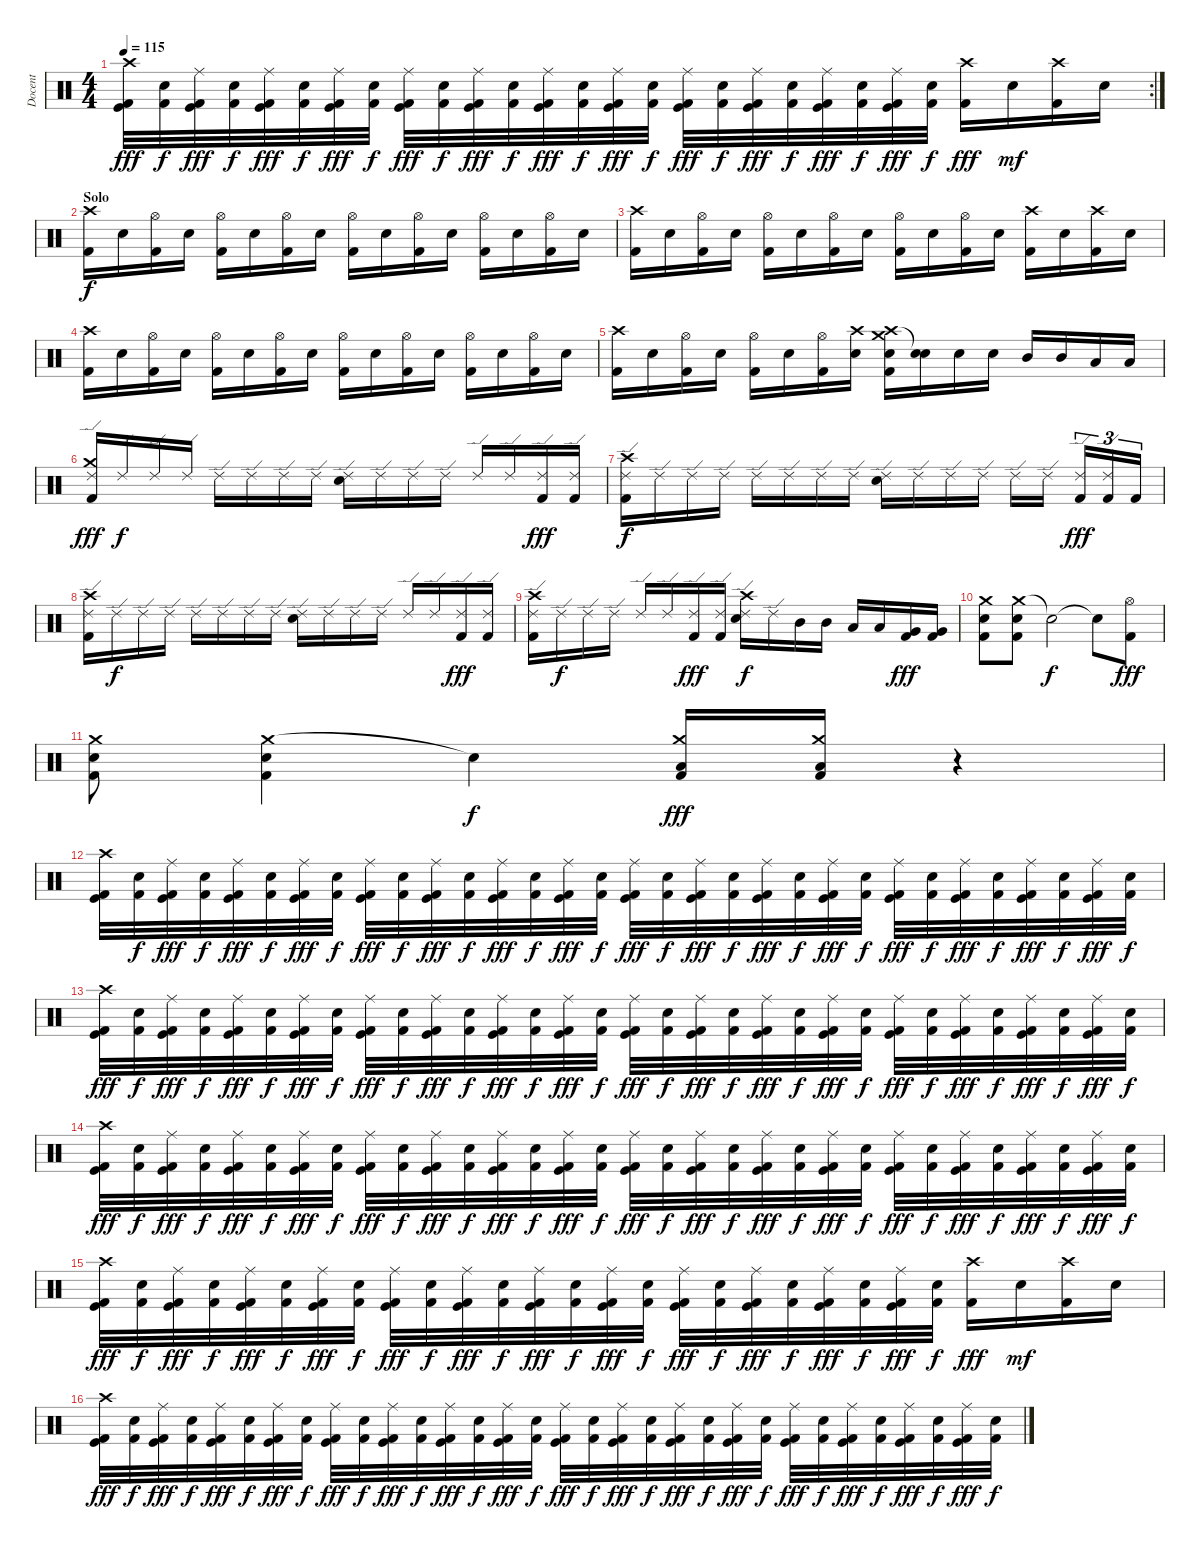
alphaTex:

\track ("Docent" "Docent") {instrument percussion}
\staff {score}
\articulation defaults
\rc 2
\ts (4 4)
\tempo 115
\clef neutral
\ks c
("Crash high (hit)" "Kick (hit)" "Kick (hit) 2").32{dy fff} ("Electric Snare (hit)" "Kick (hit) 2").32{dy f} ("Ride (middle)" "Kick (hit)" "Kick (hit) 2").32{dy fff} ("Electric Snare (hit)" "Kick (hit) 2").32{dy f} ("Ride (middle)" "Kick (hit)" "Kick (hit) 2").32{dy fff} ("Electric Snare (hit)" "Kick (hit) 2").32{dy f} ("Ride (middle)" "Kick (hit)" "Kick (hit) 2").32{dy fff} ("Electric Snare (hit)" "Kick (hit) 2").32{dy f} ("Ride (middle)" "Kick (hit)" "Kick (hit) 2").32{dy fff} ("Electric Snare (hit)" "Kick (hit) 2").32{dy f} ("Ride (middle)" "Kick (hit)" "Kick (hit) 2").32{dy fff} ("Electric Snare (hit)" "Kick (hit) 2").32{dy f} ("Ride (middle)" "Kick (hit)" "Kick (hit) 2").32{dy fff} ("Electric Snare (hit)" "Kick (hit) 2").32{dy f} ("Ride (middle)" "Kick (hit)" "Kick (hit) 2").32{dy fff} ("Electric Snare (hit)" "Kick (hit) 2").32{dy f} ("Ride (middle)" "Kick (hit)" "Kick (hit) 2").32{dy fff} ("Electric Snare (hit)" "Kick (hit) 2").32{dy f} ("Ride (middle)" "Kick (hit)" "Kick (hit) 2").32{dy fff} ("Electric Snare (hit)" "Kick (hit) 2").32{dy f} ("Ride (middle)" "Kick (hit)" "Kick (hit) 2").32{dy fff} ("Electric Snare (hit)" "Kick (hit) 2").32{dy f} ("Ride (middle)" "Kick (hit)" "Kick (hit) 2").32{dy fff} ("Electric Snare (hit)" "Kick (hit) 2").32{dy f} ("Crash high (hit)" "Kick (hit) 2").16{dy fff} "Electric Snare (hit)".16{dy mf} ("Crash high (hit)" "Kick (hit) 2").16 "Electric Snare (hit)".16 |
\section ("" "Solo")
("Crash high (hit)" "Kick (hit) 2").16{dy f} "Electric Snare (hit)".16 ("Hi-Hat (open)" "Kick (hit) 2").16 "Electric Snare (hit)".16 ("Hi-Hat (open)" "Kick (hit) 2").16 "Electric Snare (hit)".16 ("Hi-Hat (open)" "Kick (hit) 2").16 "Electric Snare (hit)".16 ("Hi-Hat (open)" "Kick (hit) 2").16 "Electric Snare (hit)".16 ("Hi-Hat (open)" "Kick (hit) 2").16 "Electric Snare (hit)".16 ("Hi-Hat (open)" "Kick (hit) 2").16 "Electric Snare (hit)".16 ("Hi-Hat (open)" "Kick (hit) 2").16 "Electric Snare (hit)".16 |
("Crash high (hit)" "Kick (hit) 2").16 "Electric Snare (hit)".16 ("Hi-Hat (open)" "Kick (hit) 2").16 "Electric Snare (hit)".16 ("Hi-Hat (open)" "Kick (hit) 2").16 "Electric Snare (hit)".16 ("Hi-Hat (open)" "Kick (hit) 2").16 "Electric Snare (hit)".16 ("Hi-Hat (open)" "Kick (hit) 2").16 "Electric Snare (hit)".16 ("Hi-Hat (open)" "Kick (hit) 2").16 "Electric Snare (hit)".16 ("Crash high (hit)" "Kick (hit) 2").16 "Electric Snare (hit)".16 ("Crash high (hit)" "Kick (hit) 2").16 "Electric Snare (hit)".16 |
("Crash high (hit)" "Kick (hit) 2").16 "Electric Snare (hit)".16 ("Hi-Hat (open)" "Kick (hit) 2").16 "Electric Snare (hit)".16 ("Hi-Hat (open)" "Kick (hit) 2").16 "Electric Snare (hit)".16 ("Hi-Hat (open)" "Kick (hit) 2").16 "Electric Snare (hit)".16 ("Hi-Hat (open)" "Kick (hit) 2").16 "Electric Snare (hit)".16 ("Hi-Hat (open)" "Kick (hit) 2").16 "Electric Snare (hit)".16 ("Hi-Hat (open)" "Kick (hit) 2").16 "Electric Snare (hit)".16 ("Hi-Hat (open)" "Kick (hit) 2").16 "Electric Snare (hit)".16 |
("Crash high (hit)" "Kick (hit) 2").16 "Electric Snare (hit)".16 ("Hi-Hat (open)" "Kick (hit) 2").16 "Electric Snare (hit)".16 ("Hi-Hat (open)" "Kick (hit) 2").16 "Electric Snare (hit)".16 ("Hi-Hat (open)" "Kick (hit) 2").16 ("Crash high (hit)" "Electric Snare (hit)").16 ("Crash high (hit)" "Crash medium (hit)" "Electric Snare (hit)" "Kick (hit) 2").16 ("Snare (hit)"{t} "Electric Snare (hit)").16 "Electric Snare (hit)".16 "Electric Snare (hit)".16 "Mid Tom (hit)".16 "Mid Tom (hit)".16 "Low Tom (hit)".16 "Low Tom (hit)".16 |
("Crash medium (hit)" "Kick (hit) 2" "Ride (edge) 2").16{dy fff} "Ride (edge) 2".16{dy f} "Ride (edge) 2".16 "Ride (edge) 2".16 "Ride (edge) 2".16 "Ride (edge) 2".16 "Ride (edge) 2".16 "Ride (edge) 2".16 ("Electric Snare (hit)" "Ride (edge) 2").16 "Ride (edge) 2".16 "Ride (edge) 2".16 "Ride (edge) 2".16 "Ride (edge) 2".16 "Ride (edge) 2".16 ("Kick (hit) 2" "Ride (edge) 2").16{dy fff} ("Kick (hit) 2" "Ride (edge) 2").16 |
("Crash high (hit)" "Kick (hit) 2" "Ride (edge) 2").16{dy f} "Ride (edge) 2".16 "Ride (edge) 2".16 "Ride (edge) 2".16 "Ride (edge) 2".16 "Ride (edge) 2".16 "Ride (edge) 2".16 "Ride (edge) 2".16 ("Electric Snare (hit)" "Ride (edge) 2").16 "Ride (edge) 2".16 "Ride (edge) 2".16 "Ride (edge) 2".16 "Ride (edge) 2".16 "Ride (edge) 2".16 ("Kick (hit) 2" "Ride (edge) 2").16{tu (3 2) dy fff} ("Kick (hit) 2" "Ride (edge) 2").16{tu (3 2)} "Kick (hit) 2".16{tu (3 2)} |
("Crash high (hit)" "Kick (hit) 2" "Ride (edge) 2").16 "Ride (edge) 2".16{dy f} "Ride (edge) 2".16 "Ride (edge) 2".16 "Ride (edge) 2".16 "Ride (edge) 2".16 "Ride (edge) 2".16 "Ride (edge) 2".16 ("Electric Snare (hit)" "Ride (edge) 2").16 "Ride (edge) 2".16 "Ride (edge) 2".16 "Ride (edge) 2".16 "Ride (edge) 2".16 "Ride (edge) 2".16 ("Kick (hit) 2" "Ride (edge) 2").16{dy fff} ("Kick (hit) 2" "Ride (edge) 2").16 |
("Crash high (hit)" "Kick (hit) 2" "Ride (edge) 2").16 "Ride (edge) 2".16{dy f} "Ride (edge) 2".16 "Ride (edge) 2".16 "Ride (edge) 2".16 "Ride (edge) 2".16 ("Kick (hit) 2" "Ride (edge) 2").16{dy fff} ("Kick (hit) 2" "Ride (edge) 2").16 ("Crash high (hit)" "Electric Snare (hit)" "Ride (edge) 2").16{dy f} "Ride (edge) 2".16 "Mid Tom (hit)".16 "Mid Tom (hit)".16 "Low Tom (hit)".16 "Low Tom (hit)".16 ("Very Low Tom (hit)" "Kick (hit) 2").16{dy fff} ("Very Low Tom (hit)" "Kick (hit) 2").16 |
("Crash medium (hit)" "Electric Snare (hit)" "Kick (hit) 2").8 ("Crash medium (hit)" "Electric Snare (hit)" "Kick (hit) 2").8 "Snare (hit)"{t}.2{dy f} "Snare (hit)"{t}.8 ("Hi-Hat (open)" "Kick (hit) 2").8{dy fff} |
("Crash medium (hit)" "Electric Snare (hit)" "Kick (hit) 2").8 ("Crash medium (hit)" "Electric Snare (hit)" "Kick (hit) 2").4 "Snare (hit)"{t}.4{dy f} ("Crash medium (hit)" "Low Tom (hit)" "Kick (hit) 2").16{dy fff} ("Crash medium (hit)" "Low Tom (hit)" "Kick (hit) 2").16 r.4 |
("Crash high (hit)" "Kick (hit)" "Kick (hit) 2").32 ("Electric Snare (hit)" "Kick (hit) 2").32{dy f} ("Ride (middle)" "Kick (hit)" "Kick (hit) 2").32{dy fff} ("Electric Snare (hit)" "Kick (hit) 2").32{dy f} ("Ride (middle)" "Kick (hit)" "Kick (hit) 2").32{dy fff} ("Electric Snare (hit)" "Kick (hit) 2").32{dy f} ("Ride (middle)" "Kick (hit)" "Kick (hit) 2").32{dy fff} ("Electric Snare (hit)" "Kick (hit) 2").32{dy f} ("Ride (middle)" "Kick (hit)" "Kick (hit) 2").32{dy fff} ("Electric Snare (hit)" "Kick (hit) 2").32{dy f} ("Ride (middle)" "Kick (hit)" "Kick (hit) 2").32{dy fff} ("Electric Snare (hit)" "Kick (hit) 2").32{dy f} ("Ride (middle)" "Kick (hit)" "Kick (hit) 2").32{dy fff} ("Electric Snare (hit)" "Kick (hit) 2").32{dy f} ("Ride (middle)" "Kick (hit)" "Kick (hit) 2").32{dy fff} ("Electric Snare (hit)" "Kick (hit) 2").32{dy f} ("Ride (middle)" "Kick (hit)" "Kick (hit) 2").32{dy fff} ("Electric Snare (hit)" "Kick (hit) 2").32{dy f} ("Ride (middle)" "Kick (hit)" "Kick (hit) 2").32{dy fff} ("Electric Snare (hit)" "Kick (hit) 2").32{dy f} ("Ride (middle)" "Kick (hit)" "Kick (hit) 2").32{dy fff} ("Electric Snare (hit)" "Kick (hit) 2").32{dy f} ("Ride (middle)" "Kick (hit)" "Kick (hit) 2").32{dy fff} ("Electric Snare (hit)" "Kick (hit) 2").32{dy f} ("Ride (middle)" "Kick (hit)" "Kick (hit) 2").32{dy fff} ("Electric Snare (hit)" "Kick (hit) 2").32{dy f} ("Ride (middle)" "Kick (hit)" "Kick (hit) 2").32{dy fff} ("Electric Snare (hit)" "Kick (hit) 2").32{dy f} ("Ride (middle)" "Kick (hit)" "Kick (hit) 2").32{dy fff} ("Electric Snare (hit)" "Kick (hit) 2").32{dy f} ("Ride (middle)" "Kick (hit)" "Kick (hit) 2").32{dy fff} ("Electric Snare (hit)" "Kick (hit) 2").32{dy f} |
("Crash high (hit)" "Kick (hit)" "Kick (hit) 2").32{dy fff} ("Electric Snare (hit)" "Kick (hit) 2").32{dy f} ("Ride (middle)" "Kick (hit)" "Kick (hit) 2").32{dy fff} ("Electric Snare (hit)" "Kick (hit) 2").32{dy f} ("Ride (middle)" "Kick (hit)" "Kick (hit) 2").32{dy fff} ("Electric Snare (hit)" "Kick (hit) 2").32{dy f} ("Ride (middle)" "Kick (hit)" "Kick (hit) 2").32{dy fff} ("Electric Snare (hit)" "Kick (hit) 2").32{dy f} ("Ride (middle)" "Kick (hit)" "Kick (hit) 2").32{dy fff} ("Electric Snare (hit)" "Kick (hit) 2").32{dy f} ("Ride (middle)" "Kick (hit)" "Kick (hit) 2").32{dy fff} ("Electric Snare (hit)" "Kick (hit) 2").32{dy f} ("Ride (middle)" "Kick (hit)" "Kick (hit) 2").32{dy fff} ("Electric Snare (hit)" "Kick (hit) 2").32{dy f} ("Ride (middle)" "Kick (hit)" "Kick (hit) 2").32{dy fff} ("Electric Snare (hit)" "Kick (hit) 2").32{dy f} ("Ride (middle)" "Kick (hit)" "Kick (hit) 2").32{dy fff} ("Electric Snare (hit)" "Kick (hit) 2").32{dy f} ("Ride (middle)" "Kick (hit)" "Kick (hit) 2").32{dy fff} ("Electric Snare (hit)" "Kick (hit) 2").32{dy f} ("Ride (middle)" "Kick (hit)" "Kick (hit) 2").32{dy fff} ("Electric Snare (hit)" "Kick (hit) 2").32{dy f} ("Ride (middle)" "Kick (hit)" "Kick (hit) 2").32{dy fff} ("Electric Snare (hit)" "Kick (hit) 2").32{dy f} ("Ride (middle)" "Kick (hit)" "Kick (hit) 2").32{dy fff} ("Electric Snare (hit)" "Kick (hit) 2").32{dy f} ("Ride (middle)" "Kick (hit)" "Kick (hit) 2").32{dy fff} ("Electric Snare (hit)" "Kick (hit) 2").32{dy f} ("Ride (middle)" "Kick (hit)" "Kick (hit) 2").32{dy fff} ("Electric Snare (hit)" "Kick (hit) 2").32{dy f} ("Ride (middle)" "Kick (hit)" "Kick (hit) 2").32{dy fff} ("Electric Snare (hit)" "Kick (hit) 2").32{dy f} |
("Crash high (hit)" "Kick (hit)" "Kick (hit) 2").32{dy fff} ("Electric Snare (hit)" "Kick (hit) 2").32{dy f} ("Ride (middle)" "Kick (hit)" "Kick (hit) 2").32{dy fff} ("Electric Snare (hit)" "Kick (hit) 2").32{dy f} ("Ride (middle)" "Kick (hit)" "Kick (hit) 2").32{dy fff} ("Electric Snare (hit)" "Kick (hit) 2").32{dy f} ("Ride (middle)" "Kick (hit)" "Kick (hit) 2").32{dy fff} ("Electric Snare (hit)" "Kick (hit) 2").32{dy f} ("Ride (middle)" "Kick (hit)" "Kick (hit) 2").32{dy fff} ("Electric Snare (hit)" "Kick (hit) 2").32{dy f} ("Ride (middle)" "Kick (hit)" "Kick (hit) 2").32{dy fff} ("Electric Snare (hit)" "Kick (hit) 2").32{dy f} ("Ride (middle)" "Kick (hit)" "Kick (hit) 2").32{dy fff} ("Electric Snare (hit)" "Kick (hit) 2").32{dy f} ("Ride (middle)" "Kick (hit)" "Kick (hit) 2").32{dy fff} ("Electric Snare (hit)" "Kick (hit) 2").32{dy f} ("Ride (middle)" "Kick (hit)" "Kick (hit) 2").32{dy fff} ("Electric Snare (hit)" "Kick (hit) 2").32{dy f} ("Ride (middle)" "Kick (hit)" "Kick (hit) 2").32{dy fff} ("Electric Snare (hit)" "Kick (hit) 2").32{dy f} ("Ride (middle)" "Kick (hit)" "Kick (hit) 2").32{dy fff} ("Electric Snare (hit)" "Kick (hit) 2").32{dy f} ("Ride (middle)" "Kick (hit)" "Kick (hit) 2").32{dy fff} ("Electric Snare (hit)" "Kick (hit) 2").32{dy f} ("Ride (middle)" "Kick (hit)" "Kick (hit) 2").32{dy fff} ("Electric Snare (hit)" "Kick (hit) 2").32{dy f} ("Ride (middle)" "Kick (hit)" "Kick (hit) 2").32{dy fff} ("Electric Snare (hit)" "Kick (hit) 2").32{dy f} ("Ride (middle)" "Kick (hit)" "Kick (hit) 2").32{dy fff} ("Electric Snare (hit)" "Kick (hit) 2").32{dy f} ("Ride (middle)" "Kick (hit)" "Kick (hit) 2").32{dy fff} ("Electric Snare (hit)" "Kick (hit) 2").32{dy f} |
("Crash high (hit)" "Kick (hit)" "Kick (hit) 2").32{dy fff} ("Electric Snare (hit)" "Kick (hit) 2").32{dy f} ("Ride (middle)" "Kick (hit)" "Kick (hit) 2").32{dy fff} ("Electric Snare (hit)" "Kick (hit) 2").32{dy f} ("Ride (middle)" "Kick (hit)" "Kick (hit) 2").32{dy fff} ("Electric Snare (hit)" "Kick (hit) 2").32{dy f} ("Ride (middle)" "Kick (hit)" "Kick (hit) 2").32{dy fff} ("Electric Snare (hit)" "Kick (hit) 2").32{dy f} ("Ride (middle)" "Kick (hit)" "Kick (hit) 2").32{dy fff} ("Electric Snare (hit)" "Kick (hit) 2").32{dy f} ("Ride (middle)" "Kick (hit)" "Kick (hit) 2").32{dy fff} ("Electric Snare (hit)" "Kick (hit) 2").32{dy f} ("Ride (middle)" "Kick (hit)" "Kick (hit) 2").32{dy fff} ("Electric Snare (hit)" "Kick (hit) 2").32{dy f} ("Ride (middle)" "Kick (hit)" "Kick (hit) 2").32{dy fff} ("Electric Snare (hit)" "Kick (hit) 2").32{dy f} ("Ride (middle)" "Kick (hit)" "Kick (hit) 2").32{dy fff} ("Electric Snare (hit)" "Kick (hit) 2").32{dy f} ("Ride (middle)" "Kick (hit)" "Kick (hit) 2").32{dy fff} ("Electric Snare (hit)" "Kick (hit) 2").32{dy f} ("Ride (middle)" "Kick (hit)" "Kick (hit) 2").32{dy fff} ("Electric Snare (hit)" "Kick (hit) 2").32{dy f} ("Ride (middle)" "Kick (hit)" "Kick (hit) 2").32{dy fff} ("Electric Snare (hit)" "Kick (hit) 2").32{dy f} ("Crash high (hit)" "Kick (hit) 2").16{dy fff} "Electric Snare (hit)".16{dy mf} ("Crash high (hit)" "Kick (hit) 2").16 "Electric Snare (hit)".16 |
("Crash high (hit)" "Kick (hit)" "Kick (hit) 2").32{dy fff} ("Electric Snare (hit)" "Kick (hit) 2").32{dy f} ("Ride (middle)" "Kick (hit)" "Kick (hit) 2").32{dy fff} ("Electric Snare (hit)" "Kick (hit) 2").32{dy f} ("Ride (middle)" "Kick (hit)" "Kick (hit) 2").32{dy fff} ("Electric Snare (hit)" "Kick (hit) 2").32{dy f} ("Ride (middle)" "Kick (hit)" "Kick (hit) 2").32{dy fff} ("Electric Snare (hit)" "Kick (hit) 2").32{dy f} ("Ride (middle)" "Kick (hit)" "Kick (hit) 2").32{dy fff} ("Electric Snare (hit)" "Kick (hit) 2").32{dy f} ("Ride (middle)" "Kick (hit)" "Kick (hit) 2").32{dy fff} ("Electric Snare (hit)" "Kick (hit) 2").32{dy f} ("Ride (middle)" "Kick (hit)" "Kick (hit) 2").32{dy fff} ("Electric Snare (hit)" "Kick (hit) 2").32{dy f} ("Ride (middle)" "Kick (hit)" "Kick (hit) 2").32{dy fff} ("Electric Snare (hit)" "Kick (hit) 2").32{dy f} ("Ride (middle)" "Kick (hit)" "Kick (hit) 2").32{dy fff} ("Electric Snare (hit)" "Kick (hit) 2").32{dy f} ("Ride (middle)" "Kick (hit)" "Kick (hit) 2").32{dy fff} ("Electric Snare (hit)" "Kick (hit) 2").32{dy f} ("Ride (middle)" "Kick (hit)" "Kick (hit) 2").32{dy fff} ("Electric Snare (hit)" "Kick (hit) 2").32{dy f} ("Ride (middle)" "Kick (hit)" "Kick (hit) 2").32{dy fff} ("Electric Snare (hit)" "Kick (hit) 2").32{dy f} ("Ride (middle)" "Kick (hit)" "Kick (hit) 2").32{dy fff} ("Electric Snare (hit)" "Kick (hit) 2").32{dy f} ("Ride (middle)" "Kick (hit)" "Kick (hit) 2").32{dy fff} ("Electric Snare (hit)" "Kick (hit) 2").32{dy f} ("Ride (middle)" "Kick (hit)" "Kick (hit) 2").32{dy fff} ("Electric Snare (hit)" "Kick (hit) 2").32{dy f} ("Ride (middle)" "Kick (hit)" "Kick (hit) 2").32{dy fff} ("Electric Snare (hit)" "Kick (hit) 2").32{dy f}
